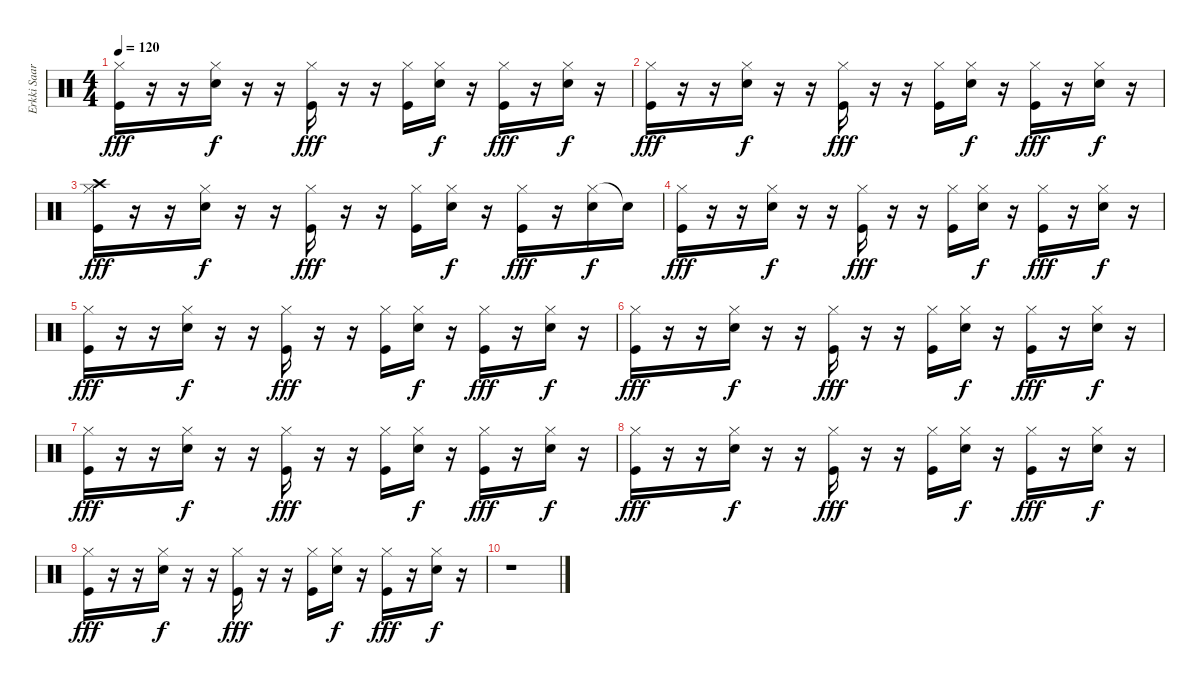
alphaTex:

\track ("Erkki Saarinen" "Erkki Saar") {instrument percussion}
\staff {score}
\articulation defaults
\ts (4 4)
\tempo 120
\clef neutral
\ks c
("Hi-Hat (closed)" "Kick (hit)").16{dy fff} r.16 r.16 ("Hi-Hat (closed)" "Snare (hit) 2").16{dy f} r.16 r.16 ("Hi-Hat (closed)" "Kick (hit)").16{dy fff} r.16 r.16 ("Hi-Hat (closed)" "Kick (hit)").16 ("Hi-Hat (closed)" "Snare (hit) 2").16{dy f} r.16 ("Hi-Hat (closed)" "Kick (hit)").16{dy fff} r.16 ("Hi-Hat (closed)" "Snare (hit) 2").16{dy f} r.16 |
("Hi-Hat (closed)" "Kick (hit)").16{dy fff} r.16 r.16 ("Hi-Hat (closed)" "Snare (hit) 2").16{dy f} r.16 r.16 ("Hi-Hat (closed)" "Kick (hit)").16{dy fff} r.16 r.16 ("Hi-Hat (closed)" "Kick (hit)").16 ("Hi-Hat (closed)" "Snare (hit) 2").16{dy f} r.16 ("Hi-Hat (closed)" "Kick (hit)").16{dy fff} r.16 ("Hi-Hat (closed)" "Snare (hit) 2").16{dy f} r.16 |
("Crash high (hit)" "Hi-Hat (closed)" "Kick (hit)").16{dy fff volume 12} r.16 r.16 ("Hi-Hat (closed)" "Snare (hit) 2").16{dy f} r.16 r.16 ("Hi-Hat (closed)" "Kick (hit)").16{dy fff} r.16 r.16{volume 11} ("Hi-Hat (closed)" "Kick (hit)").16 ("Hi-Hat (closed)" "Snare (hit) 2").16{dy f} r.16 ("Hi-Hat (closed)" "Kick (hit)").16{dy fff} r.16 ("Hi-Hat (closed)" "Snare (hit) 2").16{dy f} "Snare (hit)"{t}.16 |
("Hi-Hat (closed)" "Kick (hit)").16{dy fff volume 10} r.16 r.16 ("Hi-Hat (closed)" "Snare (hit) 2").16{dy f} r.16 r.16 ("Hi-Hat (closed)" "Kick (hit)").16{dy fff} r.16 r.16{volume 9} ("Hi-Hat (closed)" "Kick (hit)").16 ("Hi-Hat (closed)" "Snare (hit) 2").16{dy f} r.16 ("Hi-Hat (closed)" "Kick (hit)").16{dy fff} r.16 ("Hi-Hat (closed)" "Snare (hit) 2").16{dy f} r.16 |
("Hi-Hat (closed)" "Kick (hit)").16{dy fff volume 8} r.16 r.16 ("Hi-Hat (closed)" "Snare (hit) 2").16{dy f} r.16 r.16 ("Hi-Hat (closed)" "Kick (hit)").16{dy fff} r.16 r.16{volume 7} ("Hi-Hat (closed)" "Kick (hit)").16 ("Hi-Hat (closed)" "Snare (hit) 2").16{dy f} r.16 ("Hi-Hat (closed)" "Kick (hit)").16{dy fff} r.16 ("Hi-Hat (closed)" "Snare (hit) 2").16{dy f} r.16 |
("Hi-Hat (closed)" "Kick (hit)").16{dy fff volume 6} r.16 r.16 ("Hi-Hat (closed)" "Snare (hit) 2").16{dy f} r.16 r.16 ("Hi-Hat (closed)" "Kick (hit)").16{dy fff} r.16 r.16{volume 5} ("Hi-Hat (closed)" "Kick (hit)").16 ("Hi-Hat (closed)" "Snare (hit) 2").16{dy f} r.16 ("Hi-Hat (closed)" "Kick (hit)").16{dy fff} r.16 ("Hi-Hat (closed)" "Snare (hit) 2").16{dy f} r.16 |
("Hi-Hat (closed)" "Kick (hit)").16{dy fff volume 4} r.16 r.16 ("Hi-Hat (closed)" "Snare (hit) 2").16{dy f} r.16 r.16 ("Hi-Hat (closed)" "Kick (hit)").16{dy fff} r.16 r.16{volume 3} ("Hi-Hat (closed)" "Kick (hit)").16 ("Hi-Hat (closed)" "Snare (hit) 2").16{dy f} r.16 ("Hi-Hat (closed)" "Kick (hit)").16{dy fff} r.16 ("Hi-Hat (closed)" "Snare (hit) 2").16{dy f} r.16 |
("Hi-Hat (closed)" "Kick (hit)").16{dy fff volume 2} r.16 r.16 ("Hi-Hat (closed)" "Snare (hit) 2").16{dy f} r.16 r.16 ("Hi-Hat (closed)" "Kick (hit)").16{dy fff} r.16 r.16{volume 1} ("Hi-Hat (closed)" "Kick (hit)").16 ("Hi-Hat (closed)" "Snare (hit) 2").16{dy f} r.16 ("Hi-Hat (closed)" "Kick (hit)").16{dy fff} r.16 ("Hi-Hat (closed)" "Snare (hit) 2").16{dy f} r.16 |
("Hi-Hat (closed)" "Kick (hit)").16{dy fff volume 0} r.16 r.16 ("Hi-Hat (closed)" "Snare (hit) 2").16{dy f} r.16 r.16 ("Hi-Hat (closed)" "Kick (hit)").16{dy fff} r.16 r.16{volume 0} ("Hi-Hat (closed)" "Kick (hit)").16 ("Hi-Hat (closed)" "Snare (hit) 2").16{dy f} r.16 ("Hi-Hat (closed)" "Kick (hit)").16{dy fff} r.16 ("Hi-Hat (closed)" "Snare (hit) 2").16{dy f} r.16 |
r.1
